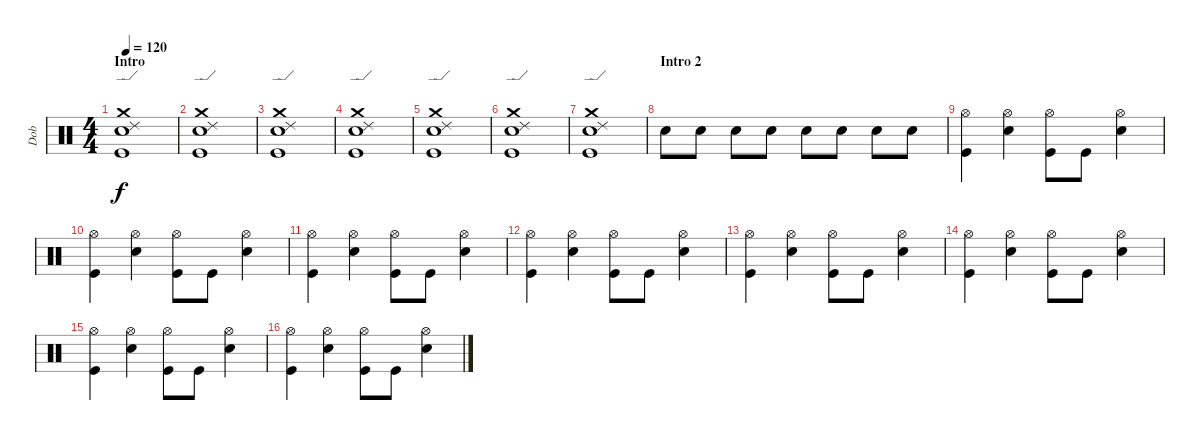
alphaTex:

\track ("Dob" "Dob") {instrument percussion}
\staff {score}
\articulation defaults
\ts (4 4)
\section ("" "Intro")
\tempo 120
\clef neutral
\ks c
("Ride (edge) 2" "Crash medium (hit)" "Snare (hit) 2" "Kick (hit)").1{dy f} |
("Ride (edge) 2" "Crash medium (hit)" "Snare (hit) 2" "Kick (hit)").1 |
("Ride (edge) 2" "Crash medium (hit)" "Snare (hit) 2" "Kick (hit)").1 |
("Ride (edge) 2" "Crash medium (hit)" "Snare (hit) 2" "Kick (hit)").1 |
("Ride (edge) 2" "Crash medium (hit)" "Snare (hit) 2" "Kick (hit)").1 |
("Ride (edge) 2" "Crash medium (hit)" "Snare (hit) 2" "Kick (hit)").1 |
("Ride (edge) 2" "Crash medium (hit)" "Snare (hit) 2" "Kick (hit)").1 |
\section ("" "Intro 2")
"Snare (hit) 2".8 "Snare (hit) 2".8 "Snare (hit) 2".8 "Snare (hit) 2".8 "Snare (hit) 2".8 "Snare (hit) 2".8 "Snare (hit) 2".8 "Snare (hit) 2".8 |
("Hi-Hat (open)" "Kick (hit)").4 ("Hi-Hat (open)" "Snare (hit) 2").4 ("Hi-Hat (open)" "Kick (hit)").8 "Kick (hit)".8 ("Hi-Hat (open)" "Snare (hit) 2").4 |
("Hi-Hat (open)" "Kick (hit)").4 ("Hi-Hat (open)" "Snare (hit) 2").4 ("Hi-Hat (open)" "Kick (hit)").8 "Kick (hit)".8 ("Hi-Hat (open)" "Snare (hit) 2").4 |
("Hi-Hat (open)" "Kick (hit)").4 ("Hi-Hat (open)" "Snare (hit) 2").4 ("Hi-Hat (open)" "Kick (hit)").8 "Kick (hit)".8 ("Hi-Hat (open)" "Snare (hit) 2").4 |
("Hi-Hat (open)" "Kick (hit)").4 ("Hi-Hat (open)" "Snare (hit) 2").4 ("Hi-Hat (open)" "Kick (hit)").8 "Kick (hit)".8 ("Hi-Hat (open)" "Snare (hit) 2").4 |
("Hi-Hat (open)" "Kick (hit)").4 ("Hi-Hat (open)" "Snare (hit) 2").4 ("Hi-Hat (open)" "Kick (hit)").8 "Kick (hit)".8 ("Hi-Hat (open)" "Snare (hit) 2").4 |
("Hi-Hat (open)" "Kick (hit)").4 ("Hi-Hat (open)" "Snare (hit) 2").4 ("Hi-Hat (open)" "Kick (hit)").8 "Kick (hit)".8 ("Hi-Hat (open)" "Snare (hit) 2").4 |
("Hi-Hat (open)" "Kick (hit)").4 ("Hi-Hat (open)" "Snare (hit) 2").4 ("Hi-Hat (open)" "Kick (hit)").8 "Kick (hit)".8 ("Hi-Hat (open)" "Snare (hit) 2").4 |
("Hi-Hat (open)" "Kick (hit)").4 ("Hi-Hat (open)" "Snare (hit) 2").4 ("Hi-Hat (open)" "Kick (hit)").8 "Kick (hit)".8 ("Hi-Hat (open)" "Snare (hit) 2").4
